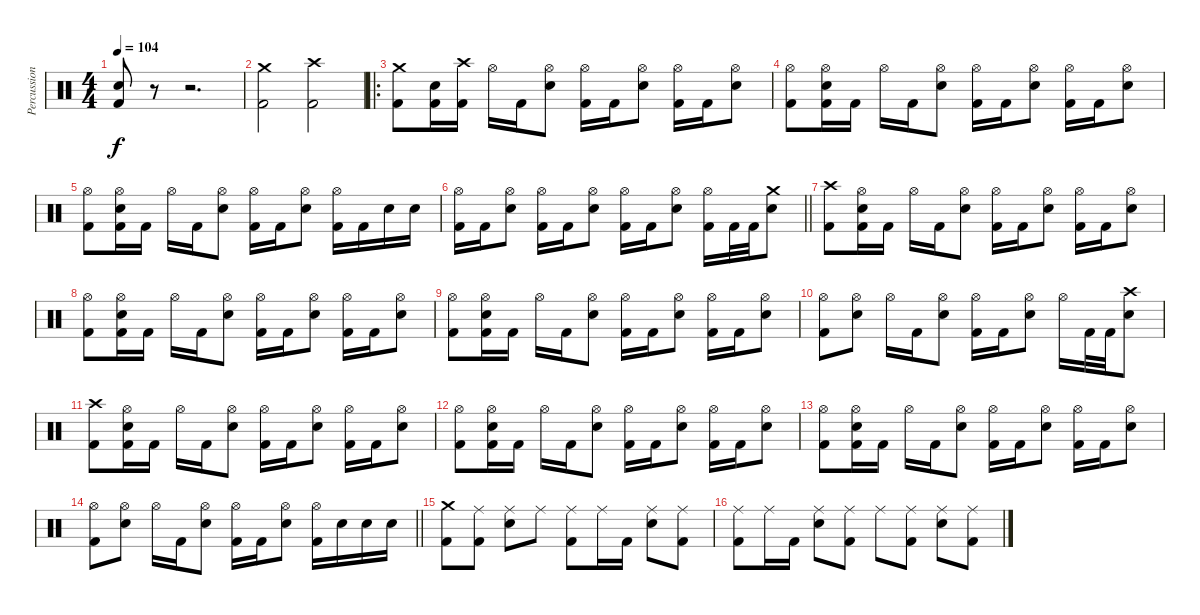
\track ("Percussion" "Percussion") {instrument percussion}
\staff {score}
\articulation defaults
\ts (4 4)
\tempo 104
\clef neutral
\ks c
("Electric Snare (hit)" "Kick (hit) 2").8{dy f} r.8 r.2{d} |
("Crash medium (hit)" "Kick (hit) 2").2 ("Crash high (hit)" "Kick (hit) 2").2 |
\ro
("Crash medium (hit)" "Kick (hit) 2").8 ("Electric Snare (hit)" "Kick (hit) 2").16 ("Crash high (hit)" "Kick (hit) 2").16 "Hi-Hat (open)".16 "Kick (hit) 2".16 ("Hi-Hat (open)" "Electric Snare (hit)").8 ("Hi-Hat (open)" "Kick (hit) 2").16 "Kick (hit) 2".16 ("Hi-Hat (open)" "Electric Snare (hit)").8 ("Hi-Hat (open)" "Kick (hit) 2").16 "Kick (hit) 2".16 ("Hi-Hat (open)" "Electric Snare (hit)").8 |
("Hi-Hat (open)" "Kick (hit) 2").8 ("Hi-Hat (open)" "Electric Snare (hit)" "Kick (hit) 2").16 "Kick (hit) 2".16 "Hi-Hat (open)".16 "Kick (hit) 2".16 ("Hi-Hat (open)" "Electric Snare (hit)").8 ("Hi-Hat (open)" "Kick (hit) 2").16 "Kick (hit) 2".16 ("Hi-Hat (open)" "Electric Snare (hit)").8 ("Hi-Hat (open)" "Kick (hit) 2").16 "Kick (hit) 2".16 ("Hi-Hat (open)" "Electric Snare (hit)").8 |
("Hi-Hat (open)" "Kick (hit) 2").8 ("Hi-Hat (open)" "Electric Snare (hit)" "Kick (hit) 2").16 "Kick (hit) 2".16 "Hi-Hat (open)".16 "Kick (hit) 2".16 ("Hi-Hat (open)" "Electric Snare (hit)").8 ("Hi-Hat (open)" "Kick (hit) 2").16 "Kick (hit) 2".16 ("Hi-Hat (open)" "Electric Snare (hit)").8 ("Hi-Hat (open)" "Kick (hit) 2").16 "Kick (hit) 2".16 "Electric Snare (hit)".16 "Electric Snare (hit)".16 |
\barLineRight lightlight
("Hi-Hat (open)" "Kick (hit) 2").16 "Kick (hit) 2".16 ("Hi-Hat (open)" "Electric Snare (hit)").8 ("Hi-Hat (open)" "Kick (hit) 2").16 "Kick (hit) 2".16 ("Hi-Hat (open)" "Electric Snare (hit)").8 ("Hi-Hat (open)" "Kick (hit) 2").16 "Kick (hit) 2".16 ("Hi-Hat (open)" "Electric Snare (hit)").8 ("Hi-Hat (open)" "Kick (hit) 2").16 "Kick (hit) 2".32 "Kick (hit) 2".32 ("Crash medium (hit)" "Electric Snare (hit)").8 |
("Crash high (hit)" "Kick (hit) 2").8 ("Hi-Hat (open)" "Electric Snare (hit)" "Kick (hit) 2").16 "Kick (hit) 2".16 "Hi-Hat (open)".16 "Kick (hit) 2".16 ("Hi-Hat (open)" "Electric Snare (hit)").8 ("Hi-Hat (open)" "Kick (hit) 2").16 "Kick (hit) 2".16 ("Hi-Hat (open)" "Electric Snare (hit)").8 ("Hi-Hat (open)" "Kick (hit) 2").16 "Kick (hit) 2".16 ("Hi-Hat (open)" "Electric Snare (hit)").8 |
("Hi-Hat (open)" "Kick (hit) 2").8 ("Hi-Hat (open)" "Electric Snare (hit)" "Kick (hit) 2").16 "Kick (hit) 2".16 "Hi-Hat (open)".16 "Kick (hit) 2".16 ("Hi-Hat (open)" "Electric Snare (hit)").8 ("Hi-Hat (open)" "Kick (hit) 2").16 "Kick (hit) 2".16 ("Hi-Hat (open)" "Electric Snare (hit)").8 ("Hi-Hat (open)" "Kick (hit) 2").16 "Kick (hit) 2".16 ("Hi-Hat (open)" "Electric Snare (hit)").8 |
("Hi-Hat (open)" "Kick (hit) 2").8 ("Hi-Hat (open)" "Electric Snare (hit)" "Kick (hit) 2").16 "Kick (hit) 2".16 "Hi-Hat (open)".16 "Kick (hit) 2".16 ("Hi-Hat (open)" "Electric Snare (hit)").8 ("Hi-Hat (open)" "Kick (hit) 2").16 "Kick (hit) 2".16 ("Hi-Hat (open)" "Electric Snare (hit)").8 ("Hi-Hat (open)" "Kick (hit) 2").16 "Kick (hit) 2".16 ("Hi-Hat (open)" "Electric Snare (hit)").8 |
("Hi-Hat (open)" "Kick (hit) 2").8 ("Hi-Hat (open)" "Electric Snare (hit)").8 "Hi-Hat (open)".16 "Kick (hit) 2".16 ("Hi-Hat (open)" "Electric Snare (hit)").8 ("Hi-Hat (open)" "Kick (hit) 2").16 "Kick (hit) 2".16 ("Hi-Hat (open)" "Electric Snare (hit)").8 "Hi-Hat (open)".16 "Kick (hit) 2".32 "Kick (hit) 2".32 ("Crash high (hit)" "Electric Snare (hit)").8 |
("Crash high (hit)" "Kick (hit) 2").8 ("Hi-Hat (open)" "Electric Snare (hit)" "Kick (hit) 2").16 "Kick (hit) 2".16 "Hi-Hat (open)".16 "Kick (hit) 2".16 ("Hi-Hat (open)" "Electric Snare (hit)").8 ("Hi-Hat (open)" "Kick (hit) 2").16 "Kick (hit) 2".16 ("Hi-Hat (open)" "Electric Snare (hit)").8 ("Hi-Hat (open)" "Kick (hit) 2").16 "Kick (hit) 2".16 ("Hi-Hat (open)" "Electric Snare (hit)").8 |
("Hi-Hat (open)" "Kick (hit) 2").8 ("Hi-Hat (open)" "Electric Snare (hit)" "Kick (hit) 2").16 "Kick (hit) 2".16 "Hi-Hat (open)".16 "Kick (hit) 2".16 ("Hi-Hat (open)" "Electric Snare (hit)").8 ("Hi-Hat (open)" "Kick (hit) 2").16 "Kick (hit) 2".16 ("Hi-Hat (open)" "Electric Snare (hit)").8 ("Hi-Hat (open)" "Kick (hit) 2").16 "Kick (hit) 2".16 ("Hi-Hat (open)" "Electric Snare (hit)").8 |
("Hi-Hat (open)" "Kick (hit) 2").8 ("Hi-Hat (open)" "Electric Snare (hit)" "Kick (hit) 2").16 "Kick (hit) 2".16 "Hi-Hat (open)".16 "Kick (hit) 2".16 ("Hi-Hat (open)" "Electric Snare (hit)").8 ("Hi-Hat (open)" "Kick (hit) 2").16 "Kick (hit) 2".16 ("Hi-Hat (open)" "Electric Snare (hit)").8 ("Hi-Hat (open)" "Kick (hit) 2").16 "Kick (hit) 2".16 ("Hi-Hat (open)" "Electric Snare (hit)").8 |
\barLineRight lightlight
("Hi-Hat (open)" "Kick (hit) 2").8 ("Hi-Hat (open)" "Electric Snare (hit)").8 "Hi-Hat (open)".16 "Kick (hit) 2".16 ("Hi-Hat (open)" "Electric Snare (hit)").8 ("Hi-Hat (open)" "Kick (hit) 2").16 "Kick (hit) 2".16 ("Hi-Hat (open)" "Electric Snare (hit)").8 ("Hi-Hat (open)" "Kick (hit) 2").16 "Electric Snare (hit)".16 "Electric Snare (hit)".16 "Electric Snare (hit)".16 |
("Crash medium (hit)" "Kick (hit) 2").8 ("Ride (middle)" "Kick (hit) 2").8 ("Ride (middle)" "Electric Snare (hit)").8 "Ride (middle)".8 ("Ride (middle)" "Kick (hit) 2").8 "Ride (middle)".16 "Kick (hit) 2".16 ("Ride (middle)" "Electric Snare (hit)").8 ("Ride (middle)" "Kick (hit) 2").8 |
("Ride (middle)" "Kick (hit) 2").8 "Ride (middle)".16 "Kick (hit) 2".16 ("Ride (middle)" "Electric Snare (hit)").8 ("Ride (middle)" "Kick (hit) 2").8 "Ride (middle)".8 ("Ride (middle)" "Kick (hit) 2").8 ("Ride (middle)" "Electric Snare (hit)").8 ("Ride (middle)" "Kick (hit) 2").8
